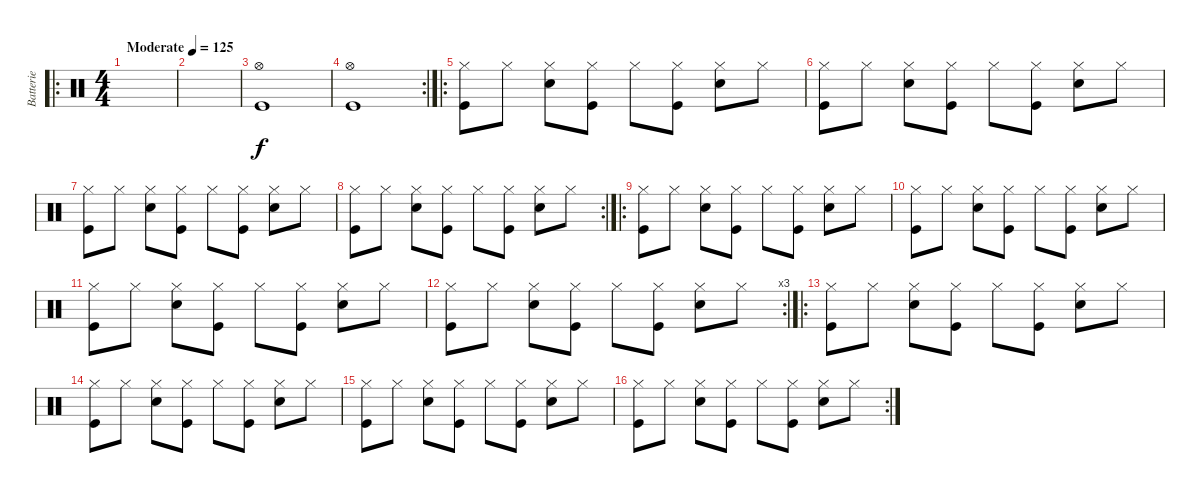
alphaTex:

\track ("Batterie" "Batterie") {instrument percussion}
\staff {score}
\articulation defaults
\ro
\ts (4 4)
\tempo (125 "Moderate")
\clef neutral
\ks c
|
|
("Kick (hit)" "Hi-Hat (open)").1 |
\rc 2
("Kick (hit)" "Hi-Hat (open)").1 |
\ro
("Hi-Hat (closed)" "Kick (hit)").8 "Hi-Hat (closed)".8 ("Hi-Hat (closed)" "Snare (hit) 2").8 ("Hi-Hat (closed)" "Kick (hit)").8 "Hi-Hat (closed)".8 ("Hi-Hat (closed)" "Kick (hit)").8 ("Hi-Hat (closed)" "Snare (hit) 2").8 "Hi-Hat (closed)".8 |
("Hi-Hat (closed)" "Kick (hit)").8 "Hi-Hat (closed)".8 ("Hi-Hat (closed)" "Snare (hit) 2").8 ("Hi-Hat (closed)" "Kick (hit)").8 "Hi-Hat (closed)".8 ("Hi-Hat (closed)" "Kick (hit)").8 ("Hi-Hat (closed)" "Snare (hit) 2").8 "Hi-Hat (closed)".8 |
("Hi-Hat (closed)" "Kick (hit)").8 "Hi-Hat (closed)".8 ("Hi-Hat (closed)" "Snare (hit) 2").8 ("Hi-Hat (closed)" "Kick (hit)").8 "Hi-Hat (closed)".8 ("Hi-Hat (closed)" "Kick (hit)").8 ("Hi-Hat (closed)" "Snare (hit) 2").8 "Hi-Hat (closed)".8 |
\rc 2
("Hi-Hat (closed)" "Kick (hit)").8 "Hi-Hat (closed)".8 ("Hi-Hat (closed)" "Snare (hit) 2").8 ("Hi-Hat (closed)" "Kick (hit)").8 "Hi-Hat (closed)".8 ("Hi-Hat (closed)" "Kick (hit)").8 ("Hi-Hat (closed)" "Snare (hit) 2").8 "Hi-Hat (closed)".8 |
\ro
("Hi-Hat (closed)" "Kick (hit)").8 "Hi-Hat (closed)".8 ("Hi-Hat (closed)" "Snare (hit) 2").8 ("Hi-Hat (closed)" "Kick (hit)").8 "Hi-Hat (closed)".8 ("Hi-Hat (closed)" "Kick (hit)").8 ("Hi-Hat (closed)" "Snare (hit) 2").8 "Hi-Hat (closed)".8 |
("Hi-Hat (closed)" "Kick (hit)").8 "Hi-Hat (closed)".8 ("Hi-Hat (closed)" "Snare (hit) 2").8 ("Hi-Hat (closed)" "Kick (hit)").8 "Hi-Hat (closed)".8 ("Hi-Hat (closed)" "Kick (hit)").8 ("Hi-Hat (closed)" "Snare (hit) 2").8 "Hi-Hat (closed)".8 |
("Hi-Hat (closed)" "Kick (hit)").8 "Hi-Hat (closed)".8 ("Hi-Hat (closed)" "Snare (hit) 2").8 ("Hi-Hat (closed)" "Kick (hit)").8 "Hi-Hat (closed)".8 ("Hi-Hat (closed)" "Kick (hit)").8 ("Hi-Hat (closed)" "Snare (hit) 2").8 "Hi-Hat (closed)".8 |
\rc 3
("Hi-Hat (closed)" "Kick (hit)").8 "Hi-Hat (closed)".8 ("Hi-Hat (closed)" "Snare (hit) 2").8 ("Hi-Hat (closed)" "Kick (hit)").8 "Hi-Hat (closed)".8 ("Hi-Hat (closed)" "Kick (hit)").8 ("Hi-Hat (closed)" "Snare (hit) 2").8 "Hi-Hat (closed)".8 |
\ro
("Hi-Hat (closed)" "Kick (hit)").8 "Hi-Hat (closed)".8 ("Hi-Hat (closed)" "Snare (hit) 2").8 ("Hi-Hat (closed)" "Kick (hit)").8 "Hi-Hat (closed)".8 ("Hi-Hat (closed)" "Kick (hit)").8 ("Hi-Hat (closed)" "Snare (hit) 2").8 "Hi-Hat (closed)".8 |
("Hi-Hat (closed)" "Kick (hit)").8 "Hi-Hat (closed)".8 ("Hi-Hat (closed)" "Snare (hit) 2").8 ("Hi-Hat (closed)" "Kick (hit)").8 "Hi-Hat (closed)".8 ("Hi-Hat (closed)" "Kick (hit)").8 ("Hi-Hat (closed)" "Snare (hit) 2").8 "Hi-Hat (closed)".8 |
("Hi-Hat (closed)" "Kick (hit)").8 "Hi-Hat (closed)".8 ("Hi-Hat (closed)" "Snare (hit) 2").8 ("Hi-Hat (closed)" "Kick (hit)").8 "Hi-Hat (closed)".8 ("Hi-Hat (closed)" "Kick (hit)").8 ("Hi-Hat (closed)" "Snare (hit) 2").8 "Hi-Hat (closed)".8 |
\rc 2
("Hi-Hat (closed)" "Kick (hit)").8 "Hi-Hat (closed)".8 ("Hi-Hat (closed)" "Snare (hit) 2").8 ("Hi-Hat (closed)" "Kick (hit)").8 "Hi-Hat (closed)".8 ("Hi-Hat (closed)" "Kick (hit)").8 ("Hi-Hat (closed)" "Snare (hit) 2").8 "Hi-Hat (closed)".8
